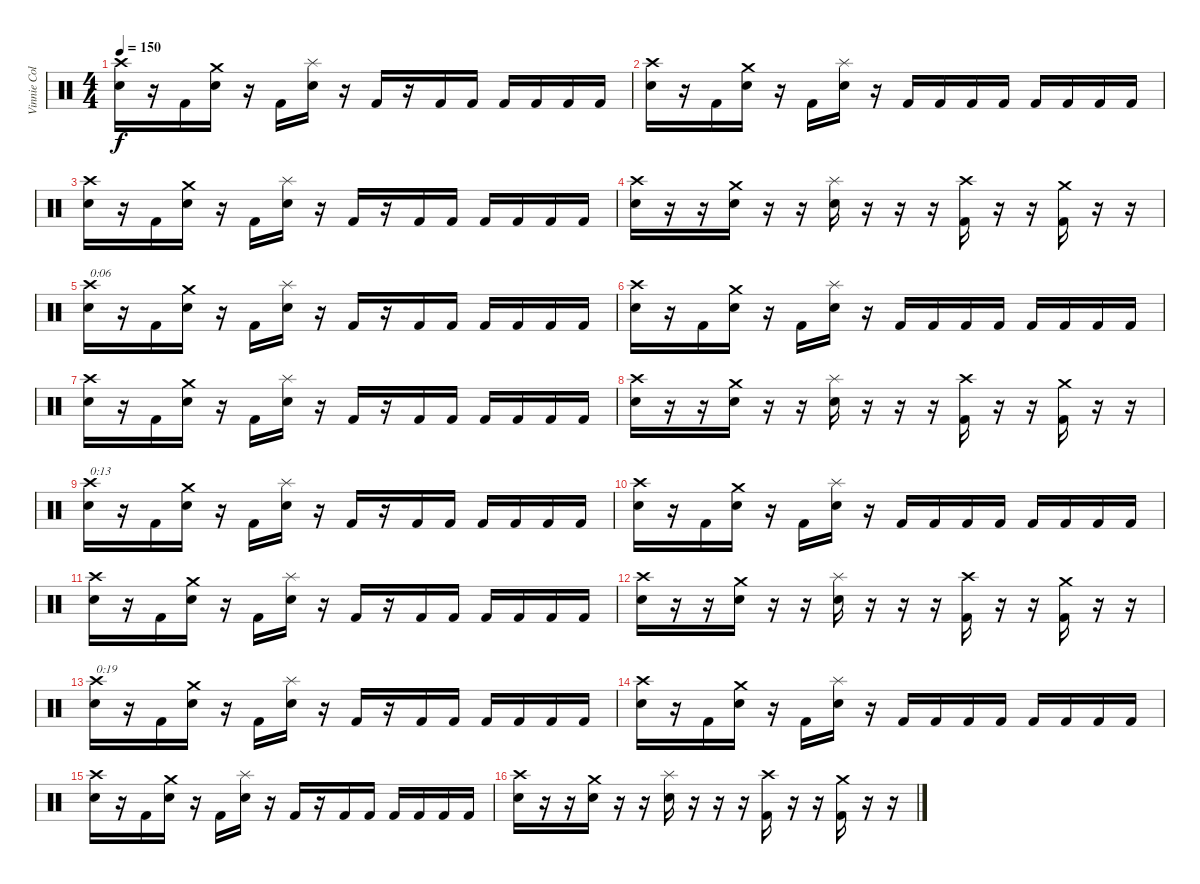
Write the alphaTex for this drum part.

\track ("Vinnie Colaiuta" "Vinnie Col") {instrument percussion}
\staff {score}
\articulation defaults
\ts (4 4)
\tempo 150
\clef neutral
\ks c
("Crash high (hit)" "Electric Snare (hit)").16{dy f} r.16 "Kick (hit) 2".16 ("Crash medium (hit)" "Electric Snare (hit)").16 r.16 "Kick (hit) 2".16 ("Splash (hit)" "Electric Snare (hit)").16 r.16 "Kick (hit) 2".16 r.16 "Kick (hit) 2".16 "Kick (hit) 2".16 "Kick (hit) 2".16 "Kick (hit) 2".16 "Kick (hit) 2".16 "Kick (hit) 2".16 |
("Crash high (hit)" "Electric Snare (hit)").16 r.16 "Kick (hit) 2".16 ("Crash medium (hit)" "Electric Snare (hit)").16 r.16 "Kick (hit) 2".16 ("Splash (hit)" "Electric Snare (hit)").16 r.16 "Kick (hit) 2".16 "Kick (hit) 2".16 "Kick (hit) 2".16 "Kick (hit) 2".16 "Kick (hit) 2".16 "Kick (hit) 2".16 "Kick (hit) 2".16 "Kick (hit) 2".16 |
("Crash high (hit)" "Electric Snare (hit)").16 r.16 "Kick (hit) 2".16 ("Crash medium (hit)" "Electric Snare (hit)").16 r.16 "Kick (hit) 2".16 ("Splash (hit)" "Electric Snare (hit)").16 r.16 "Kick (hit) 2".16 r.16 "Kick (hit) 2".16 "Kick (hit) 2".16 "Kick (hit) 2".16 "Kick (hit) 2".16 "Kick (hit) 2".16 "Kick (hit) 2".16 |
("Crash high (hit)" "Electric Snare (hit)").16 r.16 r.16 ("Crash medium (hit)" "Electric Snare (hit)").16 r.16 r.16 ("Splash (hit)" "Electric Snare (hit)").16 r.16 r.16 r.16 ("Crash high (hit)" "Kick (hit) 2").16 r.16 r.16 ("Crash medium (hit)" "Kick (hit) 2").16 r.16 r.16 |
("Crash high (hit)" "Electric Snare (hit)").16{txt "0:06"} r.16 "Kick (hit) 2".16 ("Crash medium (hit)" "Electric Snare (hit)").16 r.16 "Kick (hit) 2".16 ("Splash (hit)" "Electric Snare (hit)").16 r.16 "Kick (hit) 2".16 r.16 "Kick (hit) 2".16 "Kick (hit) 2".16 "Kick (hit) 2".16 "Kick (hit) 2".16 "Kick (hit) 2".16 "Kick (hit) 2".16 |
("Crash high (hit)" "Electric Snare (hit)").16 r.16 "Kick (hit) 2".16 ("Crash medium (hit)" "Electric Snare (hit)").16 r.16 "Kick (hit) 2".16 ("Splash (hit)" "Electric Snare (hit)").16 r.16 "Kick (hit) 2".16 "Kick (hit) 2".16 "Kick (hit) 2".16 "Kick (hit) 2".16 "Kick (hit) 2".16 "Kick (hit) 2".16 "Kick (hit) 2".16 "Kick (hit) 2".16 |
("Crash high (hit)" "Electric Snare (hit)").16 r.16 "Kick (hit) 2".16 ("Crash medium (hit)" "Electric Snare (hit)").16 r.16 "Kick (hit) 2".16 ("Splash (hit)" "Electric Snare (hit)").16 r.16 "Kick (hit) 2".16 r.16 "Kick (hit) 2".16 "Kick (hit) 2".16 "Kick (hit) 2".16 "Kick (hit) 2".16 "Kick (hit) 2".16 "Kick (hit) 2".16 |
("Crash high (hit)" "Electric Snare (hit)").16 r.16 r.16 ("Crash medium (hit)" "Electric Snare (hit)").16 r.16 r.16 ("Splash (hit)" "Electric Snare (hit)").16 r.16 r.16 r.16 ("Crash high (hit)" "Kick (hit) 2").16 r.16 r.16 ("Crash medium (hit)" "Kick (hit) 2").16 r.16 r.16 |
("Crash high (hit)" "Electric Snare (hit)").16{txt "0:13"} r.16 "Kick (hit) 2".16 ("Crash medium (hit)" "Electric Snare (hit)").16 r.16 "Kick (hit) 2".16 ("Splash (hit)" "Electric Snare (hit)").16 r.16 "Kick (hit) 2".16 r.16 "Kick (hit) 2".16 "Kick (hit) 2".16 "Kick (hit) 2".16 "Kick (hit) 2".16 "Kick (hit) 2".16 "Kick (hit) 2".16 |
("Crash high (hit)" "Electric Snare (hit)").16 r.16 "Kick (hit) 2".16 ("Crash medium (hit)" "Electric Snare (hit)").16 r.16 "Kick (hit) 2".16 ("Splash (hit)" "Electric Snare (hit)").16 r.16 "Kick (hit) 2".16 "Kick (hit) 2".16 "Kick (hit) 2".16 "Kick (hit) 2".16 "Kick (hit) 2".16 "Kick (hit) 2".16 "Kick (hit) 2".16 "Kick (hit) 2".16 |
("Crash high (hit)" "Electric Snare (hit)").16 r.16 "Kick (hit) 2".16 ("Crash medium (hit)" "Electric Snare (hit)").16 r.16 "Kick (hit) 2".16 ("Splash (hit)" "Electric Snare (hit)").16 r.16 "Kick (hit) 2".16 r.16 "Kick (hit) 2".16 "Kick (hit) 2".16 "Kick (hit) 2".16 "Kick (hit) 2".16 "Kick (hit) 2".16 "Kick (hit) 2".16 |
("Crash high (hit)" "Electric Snare (hit)").16 r.16 r.16 ("Crash medium (hit)" "Electric Snare (hit)").16 r.16 r.16 ("Splash (hit)" "Electric Snare (hit)").16 r.16 r.16 r.16 ("Crash high (hit)" "Kick (hit) 2").16 r.16 r.16 ("Crash medium (hit)" "Kick (hit) 2").16 r.16 r.16 |
("Crash high (hit)" "Electric Snare (hit)").16{txt "0:19"} r.16 "Kick (hit) 2".16 ("Crash medium (hit)" "Electric Snare (hit)").16 r.16 "Kick (hit) 2".16 ("Splash (hit)" "Electric Snare (hit)").16 r.16 "Kick (hit) 2".16 r.16 "Kick (hit) 2".16 "Kick (hit) 2".16 "Kick (hit) 2".16 "Kick (hit) 2".16 "Kick (hit) 2".16 "Kick (hit) 2".16 |
("Crash high (hit)" "Electric Snare (hit)").16 r.16 "Kick (hit) 2".16 ("Crash medium (hit)" "Electric Snare (hit)").16 r.16 "Kick (hit) 2".16 ("Splash (hit)" "Electric Snare (hit)").16 r.16 "Kick (hit) 2".16 "Kick (hit) 2".16 "Kick (hit) 2".16 "Kick (hit) 2".16 "Kick (hit) 2".16 "Kick (hit) 2".16 "Kick (hit) 2".16 "Kick (hit) 2".16 |
("Crash high (hit)" "Electric Snare (hit)").16 r.16 "Kick (hit) 2".16 ("Crash medium (hit)" "Electric Snare (hit)").16 r.16 "Kick (hit) 2".16 ("Splash (hit)" "Electric Snare (hit)").16 r.16 "Kick (hit) 2".16 r.16 "Kick (hit) 2".16 "Kick (hit) 2".16 "Kick (hit) 2".16 "Kick (hit) 2".16 "Kick (hit) 2".16 "Kick (hit) 2".16 |
("Crash high (hit)" "Electric Snare (hit)").16 r.16 r.16 ("Crash medium (hit)" "Electric Snare (hit)").16 r.16 r.16 ("Splash (hit)" "Electric Snare (hit)").16 r.16 r.16 r.16 ("Crash high (hit)" "Kick (hit) 2").16 r.16 r.16 ("Crash medium (hit)" "Kick (hit) 2").16 r.16 r.16
